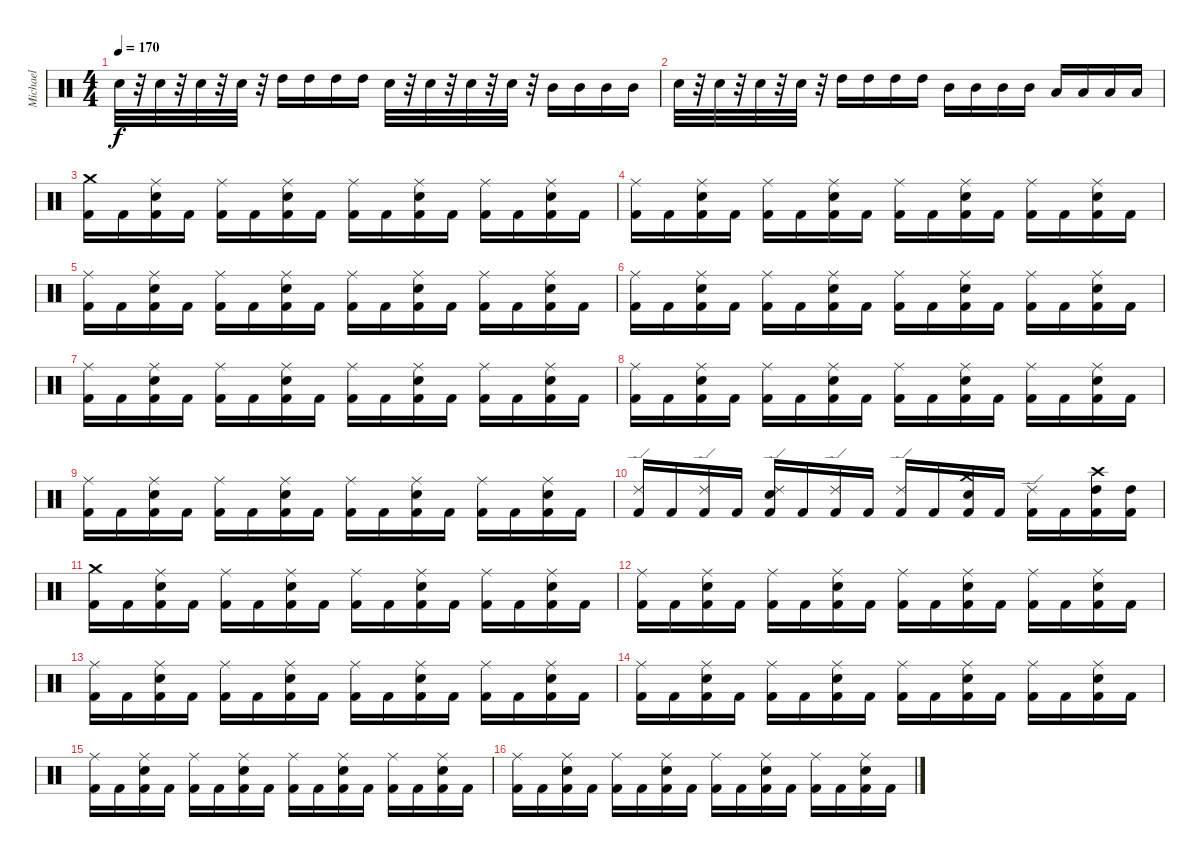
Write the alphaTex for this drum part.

\track ("Michael" "Michael") {instrument percussion}
\staff {score}
\articulation defaults
\ts (4 4)
\tempo 170
\clef neutral
\ks c "Electric Snare (hit)".32{dy f}
r.32 "Electric Snare (hit)".32 r.32 "Electric Snare (hit)".32 r.32 "Electric Snare (hit)".32 r.32 "High Tom (hit)".16 "High Tom (hit)".16 "High Tom (hit)".16 "High Tom (hit)".16 "Electric Snare (hit)".32 r.32 "Electric Snare (hit)".32 r.32 "Electric Snare (hit)".32 r.32 "Electric Snare (hit)".32 r.32 "Mid Tom (hit)".16 "Mid Tom (hit)".16 "Mid Tom (hit)".16 "Mid Tom (hit)".16 |
"Electric Snare (hit)".32 r.32 "Electric Snare (hit)".32 r.32 "Electric Snare (hit)".32 r.32 "Electric Snare (hit)".32 r.32 "High Tom (hit)".16 "High Tom (hit)".16 "High Tom (hit)".16 "High Tom (hit)".16 "Mid Tom (hit)".16 "Mid Tom (hit)".16 "Mid Tom (hit)".16 "Mid Tom (hit)".16 "Low Tom (hit)".16 "Low Tom (hit)".16 "Low Tom (hit)".16 "Low Tom (hit)".16 |
("Crash medium (hit)" "Kick (hit) 2").16 "Kick (hit) 2".16 ("Ride (middle)" "Electric Snare (hit)" "Kick (hit) 2").16 "Kick (hit) 2".16 ("Ride (middle)" "Kick (hit) 2").16 "Kick (hit) 2".16 ("Ride (middle)" "Electric Snare (hit)" "Kick (hit) 2").16 "Kick (hit) 2".16 ("Ride (middle)" "Kick (hit) 2").16 "Kick (hit) 2".16 ("Ride (middle)" "Electric Snare (hit)" "Kick (hit) 2").16 "Kick (hit) 2".16 ("Ride (middle)" "Kick (hit) 2").16 "Kick (hit) 2".16 ("Ride (middle)" "Electric Snare (hit)" "Kick (hit) 2").16 "Kick (hit) 2".16 |
("Ride (middle)" "Kick (hit) 2").16 "Kick (hit) 2".16 ("Ride (middle)" "Electric Snare (hit)" "Kick (hit) 2").16 "Kick (hit) 2".16 ("Ride (middle)" "Kick (hit) 2").16 "Kick (hit) 2".16 ("Ride (middle)" "Electric Snare (hit)" "Kick (hit) 2").16 "Kick (hit) 2".16 ("Ride (middle)" "Kick (hit) 2").16 "Kick (hit) 2".16 ("Ride (middle)" "Electric Snare (hit)" "Kick (hit) 2").16 "Kick (hit) 2".16 ("Ride (middle)" "Kick (hit) 2").16 "Kick (hit) 2".16 ("Ride (middle)" "Electric Snare (hit)" "Kick (hit) 2").16 "Kick (hit) 2".16 |
("Ride (middle)" "Kick (hit) 2").16 "Kick (hit) 2".16 ("Ride (middle)" "Electric Snare (hit)" "Kick (hit) 2").16 "Kick (hit) 2".16 ("Ride (middle)" "Kick (hit) 2").16 "Kick (hit) 2".16 ("Ride (middle)" "Electric Snare (hit)" "Kick (hit) 2").16 "Kick (hit) 2".16 ("Ride (middle)" "Kick (hit) 2").16 "Kick (hit) 2".16 ("Ride (middle)" "Electric Snare (hit)" "Kick (hit) 2").16 "Kick (hit) 2".16 ("Ride (middle)" "Kick (hit) 2").16 "Kick (hit) 2".16 ("Ride (middle)" "Electric Snare (hit)" "Kick (hit) 2").16 "Kick (hit) 2".16 |
("Ride (middle)" "Kick (hit) 2").16 "Kick (hit) 2".16 ("Ride (middle)" "Electric Snare (hit)" "Kick (hit) 2").16 "Kick (hit) 2".16 ("Ride (middle)" "Kick (hit) 2").16 "Kick (hit) 2".16 ("Ride (middle)" "Electric Snare (hit)" "Kick (hit) 2").16 "Kick (hit) 2".16 ("Ride (middle)" "Kick (hit) 2").16 "Kick (hit) 2".16 ("Ride (middle)" "Electric Snare (hit)" "Kick (hit) 2").16 "Kick (hit) 2".16 ("Ride (middle)" "Kick (hit) 2").16 "Kick (hit) 2".16 ("Ride (middle)" "Electric Snare (hit)" "Kick (hit) 2").16 "Kick (hit) 2".16 |
("Ride (middle)" "Kick (hit) 2").16 "Kick (hit) 2".16 ("Ride (middle)" "Electric Snare (hit)" "Kick (hit) 2").16 "Kick (hit) 2".16 ("Ride (middle)" "Kick (hit) 2").16 "Kick (hit) 2".16 ("Ride (middle)" "Electric Snare (hit)" "Kick (hit) 2").16 "Kick (hit) 2".16 ("Ride (middle)" "Kick (hit) 2").16 "Kick (hit) 2".16 ("Ride (middle)" "Electric Snare (hit)" "Kick (hit) 2").16 "Kick (hit) 2".16 ("Ride (middle)" "Kick (hit) 2").16 "Kick (hit) 2".16 ("Ride (middle)" "Electric Snare (hit)" "Kick (hit) 2").16 "Kick (hit) 2".16 |
("Ride (middle)" "Kick (hit) 2").16 "Kick (hit) 2".16 ("Ride (middle)" "Electric Snare (hit)" "Kick (hit) 2").16 "Kick (hit) 2".16 ("Ride (middle)" "Kick (hit) 2").16 "Kick (hit) 2".16 ("Ride (middle)" "Electric Snare (hit)" "Kick (hit) 2").16 "Kick (hit) 2".16 ("Ride (middle)" "Kick (hit) 2").16 "Kick (hit) 2".16 ("Ride (middle)" "Electric Snare (hit)" "Kick (hit) 2").16 "Kick (hit) 2".16 ("Ride (middle)" "Kick (hit) 2").16 "Kick (hit) 2".16 ("Ride (middle)" "Electric Snare (hit)" "Kick (hit) 2").16 "Kick (hit) 2".16 |
("Ride (middle)" "Kick (hit) 2").16 "Kick (hit) 2".16 ("Ride (middle)" "Electric Snare (hit)" "Kick (hit) 2").16 "Kick (hit) 2".16 ("Ride (middle)" "Kick (hit) 2").16 "Kick (hit) 2".16 ("Ride (middle)" "Electric Snare (hit)" "Kick (hit) 2").16 "Kick (hit) 2".16 ("Ride (middle)" "Kick (hit) 2").16 "Kick (hit) 2".16 ("Ride (middle)" "Electric Snare (hit)" "Kick (hit) 2").16 "Kick (hit) 2".16 ("Ride (middle)" "Kick (hit) 2").16 "Kick (hit) 2".16 ("Ride (middle)" "Electric Snare (hit)" "Kick (hit) 2").16 "Kick (hit) 2".16 |
("Ride (edge) 2" "Kick (hit) 2").16 "Kick (hit) 2".16 ("Ride (edge) 2" "Kick (hit) 2").16 "Kick (hit) 2".16 ("Ride (edge) 2" "Electric Snare (hit)" "Kick (hit) 2").16 "Kick (hit) 2".16 ("Ride (edge) 2" "Kick (hit) 2").16 "Kick (hit) 2".16 ("Ride (edge) 2" "Kick (hit) 2").16 "Kick (hit) 2".16 ("Crash medium (hit)" "Electric Snare (hit)" "Kick (hit) 2").16 "Kick (hit) 2".16 ("Ride (edge) 2" "Kick (hit) 2").16 "Kick (hit) 2".16 ("Crash high (hit)" "High Tom (hit)" "Kick (hit) 2").16 ("High Tom (hit)" "Kick (hit) 2").16 |
("Crash medium (hit)" "Kick (hit) 2").16 "Kick (hit) 2".16 ("Ride (middle)" "Electric Snare (hit)" "Kick (hit) 2").16 "Kick (hit) 2".16 ("Ride (middle)" "Kick (hit) 2").16 "Kick (hit) 2".16 ("Ride (middle)" "Electric Snare (hit)" "Kick (hit) 2").16 "Kick (hit) 2".16 ("Ride (middle)" "Kick (hit) 2").16 "Kick (hit) 2".16 ("Ride (middle)" "Electric Snare (hit)" "Kick (hit) 2").16 "Kick (hit) 2".16 ("Ride (middle)" "Kick (hit) 2").16 "Kick (hit) 2".16 ("Ride (middle)" "Electric Snare (hit)" "Kick (hit) 2").16 "Kick (hit) 2".16 |
("Ride (middle)" "Kick (hit) 2").16 "Kick (hit) 2".16 ("Ride (middle)" "Electric Snare (hit)" "Kick (hit) 2").16 "Kick (hit) 2".16 ("Ride (middle)" "Kick (hit) 2").16 "Kick (hit) 2".16 ("Ride (middle)" "Electric Snare (hit)" "Kick (hit) 2").16 "Kick (hit) 2".16 ("Ride (middle)" "Kick (hit) 2").16 "Kick (hit) 2".16 ("Ride (middle)" "Electric Snare (hit)" "Kick (hit) 2").16 "Kick (hit) 2".16 ("Ride (middle)" "Kick (hit) 2").16 "Kick (hit) 2".16 ("Ride (middle)" "Electric Snare (hit)" "Kick (hit) 2").16 "Kick (hit) 2".16 |
("Ride (middle)" "Kick (hit) 2").16 "Kick (hit) 2".16 ("Ride (middle)" "Electric Snare (hit)" "Kick (hit) 2").16 "Kick (hit) 2".16 ("Ride (middle)" "Kick (hit) 2").16 "Kick (hit) 2".16 ("Ride (middle)" "Electric Snare (hit)" "Kick (hit) 2").16 "Kick (hit) 2".16 ("Ride (middle)" "Kick (hit) 2").16 "Kick (hit) 2".16 ("Ride (middle)" "Electric Snare (hit)" "Kick (hit) 2").16 "Kick (hit) 2".16 ("Ride (middle)" "Kick (hit) 2").16 "Kick (hit) 2".16 ("Ride (middle)" "Electric Snare (hit)" "Kick (hit) 2").16 "Kick (hit) 2".16 |
("Ride (middle)" "Kick (hit) 2").16 "Kick (hit) 2".16 ("Ride (middle)" "Electric Snare (hit)" "Kick (hit) 2").16 "Kick (hit) 2".16 ("Ride (middle)" "Kick (hit) 2").16 "Kick (hit) 2".16 ("Ride (middle)" "Electric Snare (hit)" "Kick (hit) 2").16 "Kick (hit) 2".16 ("Ride (middle)" "Kick (hit) 2").16 "Kick (hit) 2".16 ("Ride (middle)" "Electric Snare (hit)" "Kick (hit) 2").16 "Kick (hit) 2".16 ("Ride (middle)" "Kick (hit) 2").16 "Kick (hit) 2".16 ("Ride (middle)" "Electric Snare (hit)" "Kick (hit) 2").16 "Kick (hit) 2".16 |
("Ride (middle)" "Kick (hit) 2").16 "Kick (hit) 2".16 ("Ride (middle)" "Electric Snare (hit)" "Kick (hit) 2").16 "Kick (hit) 2".16 ("Ride (middle)" "Kick (hit) 2").16 "Kick (hit) 2".16 ("Ride (middle)" "Electric Snare (hit)" "Kick (hit) 2").16 "Kick (hit) 2".16 ("Ride (middle)" "Kick (hit) 2").16 "Kick (hit) 2".16 ("Ride (middle)" "Electric Snare (hit)" "Kick (hit) 2").16 "Kick (hit) 2".16 ("Ride (middle)" "Kick (hit) 2").16 "Kick (hit) 2".16 ("Ride (middle)" "Electric Snare (hit)" "Kick (hit) 2").16 "Kick (hit) 2".16 |
("Ride (middle)" "Kick (hit) 2").16 "Kick (hit) 2".16 ("Ride (middle)" "Electric Snare (hit)" "Kick (hit) 2").16 "Kick (hit) 2".16 ("Ride (middle)" "Kick (hit) 2").16 "Kick (hit) 2".16 ("Ride (middle)" "Electric Snare (hit)" "Kick (hit) 2").16 "Kick (hit) 2".16 ("Ride (middle)" "Kick (hit) 2").16 "Kick (hit) 2".16 ("Ride (middle)" "Electric Snare (hit)" "Kick (hit) 2").16 "Kick (hit) 2".16 ("Ride (middle)" "Kick (hit) 2").16 "Kick (hit) 2".16 ("Ride (middle)" "Electric Snare (hit)" "Kick (hit) 2").16 "Kick (hit) 2".16
